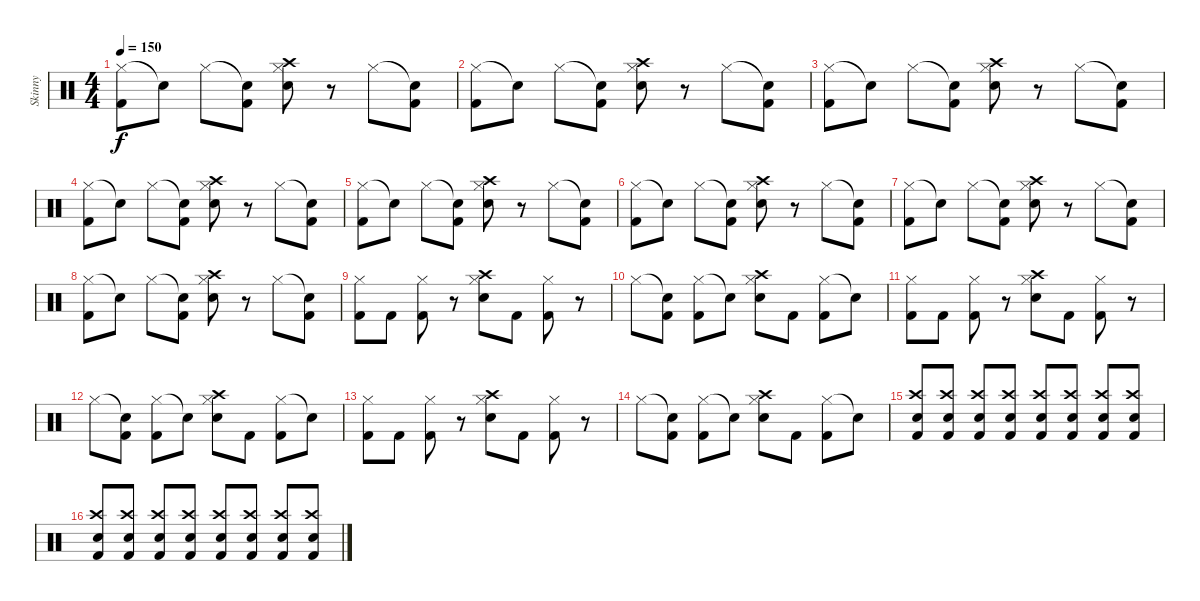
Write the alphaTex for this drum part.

\track ("Skinny" "Skinny") {instrument percussion}
\staff {score}
\articulation defaults
\ts (4 4)
\tempo 150
\clef neutral
\ks c
("Hi-Hat (closed)" "Kick (hit) 2").8{dy f} "Snare (hit)"{t}.8 "Hi-Hat (closed)".8 ("Snare (hit)"{t} "Kick (hit) 2").8 ("Crash high (hit)" "Hi-Hat (closed)" "Electric Snare (hit)").8 r.8 "Hi-Hat (closed)".8 ("Snare (hit)"{t} "Kick (hit) 2").8 |
("Hi-Hat (closed)" "Kick (hit) 2").8 "Snare (hit)"{t}.8 "Hi-Hat (closed)".8 ("Snare (hit)"{t} "Kick (hit) 2").8 ("Crash high (hit)" "Hi-Hat (closed)" "Electric Snare (hit)").8 r.8 "Hi-Hat (closed)".8 ("Snare (hit)"{t} "Kick (hit) 2").8 |
("Hi-Hat (closed)" "Kick (hit) 2").8 "Snare (hit)"{t}.8 "Hi-Hat (closed)".8 ("Snare (hit)"{t} "Kick (hit) 2").8 ("Crash high (hit)" "Hi-Hat (closed)" "Electric Snare (hit)").8 r.8 "Hi-Hat (closed)".8 ("Snare (hit)"{t} "Kick (hit) 2").8 |
("Hi-Hat (closed)" "Kick (hit) 2").8 "Snare (hit)"{t}.8 "Hi-Hat (closed)".8 ("Snare (hit)"{t} "Kick (hit) 2").8 ("Crash high (hit)" "Hi-Hat (closed)" "Electric Snare (hit)").8 r.8 "Hi-Hat (closed)".8 ("Snare (hit)"{t} "Kick (hit) 2").8 |
("Hi-Hat (closed)" "Kick (hit) 2").8 "Snare (hit)"{t}.8 "Hi-Hat (closed)".8 ("Snare (hit)"{t} "Kick (hit) 2").8 ("Crash high (hit)" "Hi-Hat (closed)" "Electric Snare (hit)").8 r.8 "Hi-Hat (closed)".8 ("Snare (hit)"{t} "Kick (hit) 2").8 |
("Hi-Hat (closed)" "Kick (hit) 2").8 "Snare (hit)"{t}.8 "Hi-Hat (closed)".8 ("Snare (hit)"{t} "Kick (hit) 2").8 ("Crash high (hit)" "Hi-Hat (closed)" "Electric Snare (hit)").8 r.8 "Hi-Hat (closed)".8 ("Snare (hit)"{t} "Kick (hit) 2").8 |
("Hi-Hat (closed)" "Kick (hit) 2").8 "Snare (hit)"{t}.8 "Hi-Hat (closed)".8 ("Snare (hit)"{t} "Kick (hit) 2").8 ("Crash high (hit)" "Hi-Hat (closed)" "Electric Snare (hit)").8 r.8 "Hi-Hat (closed)".8 ("Snare (hit)"{t} "Kick (hit) 2").8 |
("Hi-Hat (closed)" "Kick (hit) 2").8 "Snare (hit)"{t}.8 "Hi-Hat (closed)".8 ("Snare (hit)"{t} "Kick (hit) 2").8 ("Crash high (hit)" "Hi-Hat (closed)" "Electric Snare (hit)").8 r.8 "Hi-Hat (closed)".8 ("Snare (hit)"{t} "Kick (hit) 2").8 |
("Hi-Hat (closed)" "Kick (hit) 2").8 "Kick (hit) 2".8 ("Hi-Hat (closed)" "Kick (hit) 2").8 r.8 ("Crash high (hit)" "Hi-Hat (closed)" "Electric Snare (hit)").8 "Kick (hit) 2".8 ("Hi-Hat (closed)" "Kick (hit) 2").8 r.8 |
"Hi-Hat (closed)".8 ("Snare (hit)"{t} "Kick (hit) 2").8 ("Hi-Hat (closed)" "Kick (hit) 2").8 "Snare (hit)"{t}.8 ("Crash high (hit)" "Hi-Hat (closed)" "Electric Snare (hit)").8 "Kick (hit) 2".8 ("Hi-Hat (closed)" "Kick (hit) 2").8 "Snare (hit)"{t}.8 |
("Hi-Hat (closed)" "Kick (hit) 2").8 "Kick (hit) 2".8 ("Hi-Hat (closed)" "Kick (hit) 2").8 r.8 ("Crash high (hit)" "Hi-Hat (closed)" "Electric Snare (hit)").8 "Kick (hit) 2".8 ("Hi-Hat (closed)" "Kick (hit) 2").8 r.8 |
"Hi-Hat (closed)".8 ("Snare (hit)"{t} "Kick (hit) 2").8 ("Hi-Hat (closed)" "Kick (hit) 2").8 "Snare (hit)"{t}.8 ("Crash high (hit)" "Hi-Hat (closed)" "Electric Snare (hit)").8 "Kick (hit) 2".8 ("Hi-Hat (closed)" "Kick (hit) 2").8 "Snare (hit)"{t}.8 |
("Hi-Hat (closed)" "Kick (hit) 2").8 "Kick (hit) 2".8 ("Hi-Hat (closed)" "Kick (hit) 2").8 r.8 ("Crash high (hit)" "Hi-Hat (closed)" "Electric Snare (hit)").8 "Kick (hit) 2".8 ("Hi-Hat (closed)" "Kick (hit) 2").8 r.8 |
"Hi-Hat (closed)".8 ("Snare (hit)"{t} "Kick (hit) 2").8 ("Hi-Hat (closed)" "Kick (hit) 2").8 "Snare (hit)"{t}.8 ("Crash high (hit)" "Hi-Hat (closed)" "Electric Snare (hit)").8 "Kick (hit) 2".8 ("Hi-Hat (closed)" "Kick (hit) 2").8 "Snare (hit)"{t}.8 |
("Crash high (hit)" "Electric Snare (hit)" "Kick (hit) 2").8 ("Crash high (hit)" "Electric Snare (hit)" "Kick (hit) 2").8 ("Crash high (hit)" "Electric Snare (hit)" "Kick (hit) 2").8 ("Crash high (hit)" "Electric Snare (hit)" "Kick (hit) 2").8 ("Crash high (hit)" "Electric Snare (hit)" "Kick (hit) 2").8 ("Crash high (hit)" "Electric Snare (hit)" "Kick (hit) 2").8 ("Crash high (hit)" "Electric Snare (hit)" "Kick (hit) 2").8 ("Crash high (hit)" "Electric Snare (hit)" "Kick (hit) 2").8 |
("Crash high (hit)" "Electric Snare (hit)" "Kick (hit) 2").8 ("Crash high (hit)" "Electric Snare (hit)" "Kick (hit) 2").8 ("Crash high (hit)" "Electric Snare (hit)" "Kick (hit) 2").8 ("Crash high (hit)" "Electric Snare (hit)" "Kick (hit) 2").8 ("Crash high (hit)" "Electric Snare (hit)" "Kick (hit) 2").8 ("Crash high (hit)" "Electric Snare (hit)" "Kick (hit) 2").8 ("Crash high (hit)" "Electric Snare (hit)" "Kick (hit) 2").8 ("Crash high (hit)" "Electric Snare (hit)" "Kick (hit) 2").8
